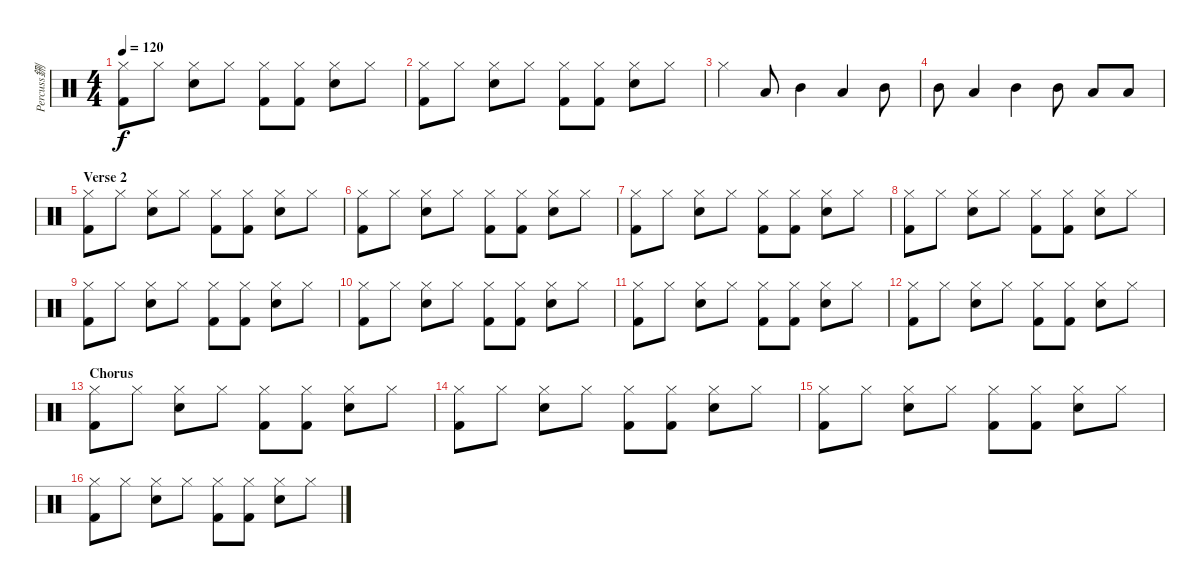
\track ("Percuss鉶" "Percuss鉶") {instrument percussion}
\staff {score}
\articulation defaults
\ts (4 4)
\tempo 120
\clef neutral
\ks c
("Hi-Hat (closed)" "Kick (hit) 2").8{dy f} "Hi-Hat (closed)".8 ("Hi-Hat (closed)" "Snare (hit) 2").8 "Hi-Hat (closed)".8 ("Hi-Hat (closed)" "Kick (hit) 2").8 ("Hi-Hat (closed)" "Kick (hit) 2").8 ("Hi-Hat (closed)" "Snare (hit) 2").8 "Hi-Hat (closed)".8 |
("Hi-Hat (closed)" "Kick (hit) 2").8 "Hi-Hat (closed)".8 ("Hi-Hat (closed)" "Snare (hit) 2").8 "Hi-Hat (closed)".8 ("Hi-Hat (closed)" "Kick (hit) 2").8 ("Hi-Hat (closed)" "Kick (hit) 2").8 ("Hi-Hat (closed)" "Snare (hit) 2").8 "Hi-Hat (closed)".8 |
"Hi-Hat (closed)".4 "Low Tom (hit)".8 "Mid Tom (hit)".4 "Low Tom (hit)".4 "Mid Tom (hit)".8 |
"Mid Tom (hit)".8 "Low Tom (hit)".4 "Mid Tom (hit)".4 "Mid Tom (hit)".8 "Low Tom (hit)".8 "Low Tom (hit)".8 |
\section ("" "Verse 2")
("Hi-Hat (closed)" "Kick (hit) 2").8 "Hi-Hat (closed)".8 ("Hi-Hat (closed)" "Snare (hit) 2").8 "Hi-Hat (closed)".8 ("Hi-Hat (closed)" "Kick (hit) 2").8 ("Hi-Hat (closed)" "Kick (hit) 2").8 ("Hi-Hat (closed)" "Snare (hit) 2").8 "Hi-Hat (closed)".8 |
("Hi-Hat (closed)" "Kick (hit) 2").8 "Hi-Hat (closed)".8 ("Hi-Hat (closed)" "Snare (hit) 2").8 "Hi-Hat (closed)".8 ("Hi-Hat (closed)" "Kick (hit) 2").8 ("Hi-Hat (closed)" "Kick (hit) 2").8 ("Hi-Hat (closed)" "Snare (hit) 2").8 "Hi-Hat (closed)".8 |
("Hi-Hat (closed)" "Kick (hit) 2").8 "Hi-Hat (closed)".8 ("Hi-Hat (closed)" "Snare (hit) 2").8 "Hi-Hat (closed)".8 ("Hi-Hat (closed)" "Kick (hit) 2").8 ("Hi-Hat (closed)" "Kick (hit) 2").8 ("Hi-Hat (closed)" "Snare (hit) 2").8 "Hi-Hat (closed)".8 |
("Hi-Hat (closed)" "Kick (hit) 2").8 "Hi-Hat (closed)".8 ("Hi-Hat (closed)" "Snare (hit) 2").8 "Hi-Hat (closed)".8 ("Hi-Hat (closed)" "Kick (hit) 2").8 ("Hi-Hat (closed)" "Kick (hit) 2").8 ("Hi-Hat (closed)" "Snare (hit) 2").8 "Hi-Hat (closed)".8 |
("Hi-Hat (closed)" "Kick (hit) 2").8 "Hi-Hat (closed)".8 ("Hi-Hat (closed)" "Snare (hit) 2").8 "Hi-Hat (closed)".8 ("Hi-Hat (closed)" "Kick (hit) 2").8 ("Hi-Hat (closed)" "Kick (hit) 2").8 ("Hi-Hat (closed)" "Snare (hit) 2").8 "Hi-Hat (closed)".8 |
("Hi-Hat (closed)" "Kick (hit) 2").8 "Hi-Hat (closed)".8 ("Hi-Hat (closed)" "Snare (hit) 2").8 "Hi-Hat (closed)".8 ("Hi-Hat (closed)" "Kick (hit) 2").8 ("Hi-Hat (closed)" "Kick (hit) 2").8 ("Hi-Hat (closed)" "Snare (hit) 2").8 "Hi-Hat (closed)".8 |
("Hi-Hat (closed)" "Kick (hit) 2").8 "Hi-Hat (closed)".8 ("Hi-Hat (closed)" "Snare (hit) 2").8 "Hi-Hat (closed)".8 ("Hi-Hat (closed)" "Kick (hit) 2").8 ("Hi-Hat (closed)" "Kick (hit) 2").8 ("Hi-Hat (closed)" "Snare (hit) 2").8 "Hi-Hat (closed)".8 |
("Hi-Hat (closed)" "Kick (hit) 2").8 "Hi-Hat (closed)".8 ("Hi-Hat (closed)" "Snare (hit) 2").8 "Hi-Hat (closed)".8 ("Hi-Hat (closed)" "Kick (hit) 2").8 ("Hi-Hat (closed)" "Kick (hit) 2").8 ("Hi-Hat (closed)" "Snare (hit) 2").8 "Hi-Hat (closed)".8 |
\section ("" "Chorus")
("Hi-Hat (closed)" "Kick (hit) 2").8 "Hi-Hat (closed)".8 ("Hi-Hat (closed)" "Snare (hit) 2").8 "Hi-Hat (closed)".8 ("Hi-Hat (closed)" "Kick (hit) 2").8 ("Hi-Hat (closed)" "Kick (hit) 2").8 ("Hi-Hat (closed)" "Snare (hit) 2").8 "Hi-Hat (closed)".8 |
("Hi-Hat (closed)" "Kick (hit) 2").8 "Hi-Hat (closed)".8 ("Hi-Hat (closed)" "Snare (hit) 2").8 "Hi-Hat (closed)".8 ("Hi-Hat (closed)" "Kick (hit) 2").8 ("Hi-Hat (closed)" "Kick (hit) 2").8 ("Hi-Hat (closed)" "Snare (hit) 2").8 "Hi-Hat (closed)".8 |
("Hi-Hat (closed)" "Kick (hit) 2").8 "Hi-Hat (closed)".8 ("Hi-Hat (closed)" "Snare (hit) 2").8 "Hi-Hat (closed)".8 ("Hi-Hat (closed)" "Kick (hit) 2").8 ("Hi-Hat (closed)" "Kick (hit) 2").8 ("Hi-Hat (closed)" "Snare (hit) 2").8 "Hi-Hat (closed)".8 |
("Hi-Hat (closed)" "Kick (hit) 2").8 "Hi-Hat (closed)".8 ("Hi-Hat (closed)" "Snare (hit) 2").8 "Hi-Hat (closed)".8 ("Hi-Hat (closed)" "Kick (hit) 2").8 ("Hi-Hat (closed)" "Kick (hit) 2").8 ("Hi-Hat (closed)" "Snare (hit) 2").8 "Hi-Hat (closed)".8
